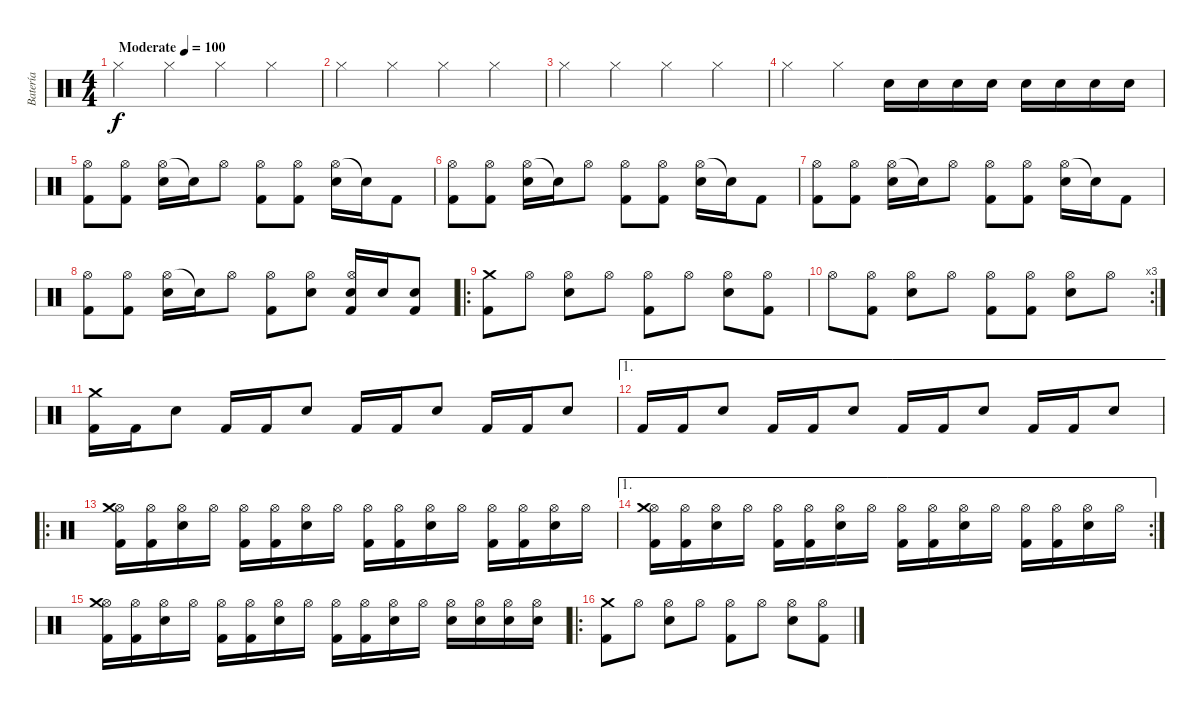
\track ("Batería" "Batería") {instrument percussion}
\staff {score}
\articulation defaults
\ts (4 4)
\tempo (100 "Moderate")
\clef neutral
\ks c "Hi-Hat (closed)".4{dy f} "Hi-Hat (closed)".4 "Hi-Hat (closed)".4 "Hi-Hat (closed)".4
|
"Hi-Hat (closed)".4 "Hi-Hat (closed)".4 "Hi-Hat (closed)".4 "Hi-Hat (closed)".4 |
"Hi-Hat (closed)".4 "Hi-Hat (closed)".4 "Hi-Hat (closed)".4 "Hi-Hat (closed)".4 |
"Hi-Hat (closed)".4 "Hi-Hat (closed)".4 "Snare (hit) 2".16 "Snare (hit) 2".16 "Snare (hit) 2".16 "Snare (hit) 2".16 "Snare (hit) 2".16 "Snare (hit) 2".16 "Snare (hit) 2".16 "Snare (hit) 2".16 |
("Hi-Hat (open)" "Kick (hit) 2").8 ("Hi-Hat (open)" "Kick (hit) 2").8 ("Hi-Hat (open)" "Snare (hit) 2").16 "Snare (hit)"{t}.16 "Hi-Hat (open)".8 ("Hi-Hat (open)" "Kick (hit) 2").8 ("Hi-Hat (open)" "Kick (hit) 2").8 ("Hi-Hat (open)" "Snare (hit) 2").16 "Snare (hit)"{t}.16 "Kick (hit) 2".8 |
("Hi-Hat (open)" "Kick (hit) 2").8 ("Hi-Hat (open)" "Kick (hit) 2").8 ("Hi-Hat (open)" "Snare (hit) 2").16 "Snare (hit)"{t}.16 "Hi-Hat (open)".8 ("Hi-Hat (open)" "Kick (hit) 2").8 ("Hi-Hat (open)" "Kick (hit) 2").8 ("Hi-Hat (open)" "Snare (hit) 2").16 "Snare (hit)"{t}.16 "Kick (hit) 2".8 |
("Hi-Hat (open)" "Kick (hit) 2").8 ("Hi-Hat (open)" "Kick (hit) 2").8 ("Hi-Hat (open)" "Snare (hit) 2").16 "Snare (hit)"{t}.16 "Hi-Hat (open)".8 ("Hi-Hat (open)" "Kick (hit) 2").8 ("Hi-Hat (open)" "Kick (hit) 2").8 ("Hi-Hat (open)" "Snare (hit) 2").16 "Snare (hit)"{t}.16 "Kick (hit) 2".8 |
("Hi-Hat (open)" "Kick (hit) 2").8 ("Hi-Hat (open)" "Kick (hit) 2").8 ("Hi-Hat (open)" "Snare (hit) 2").16 "Snare (hit)"{t}.16 "Hi-Hat (open)".8 ("Hi-Hat (open)" "Kick (hit) 2").8 ("Hi-Hat (open)" "Snare (hit) 2").8 ("Hi-Hat (open)" "Snare (hit) 2" "Kick (hit) 2").16 "Snare (hit) 2".16 ("Snare (hit) 2" "Kick (hit) 2").8 |
\ro
("Kick (hit) 2" "Crash medium (hit)").8 "Hi-Hat (open)".8 ("Snare (hit) 2" "Hi-Hat (open)").8 "Hi-Hat (open)".8 ("Kick (hit) 2" "Hi-Hat (open)").8 "Hi-Hat (open)".8 ("Snare (hit) 2" "Hi-Hat (open)").8 ("Kick (hit) 2" "Hi-Hat (open)").8 |
\rc 3 "Hi-Hat (open)".8
("Kick (hit) 2" "Hi-Hat (open)").8 ("Snare (hit) 2" "Hi-Hat (open)").8 "Hi-Hat (open)".8 ("Kick (hit) 2" "Hi-Hat (open)").8 ("Kick (hit) 2" "Hi-Hat (open)").8 ("Snare (hit) 2" "Hi-Hat (open)").8 "Hi-Hat (open)".8 |
("Kick (hit) 2" "Crash medium (hit)").16 "Kick (hit) 2".16 "Snare (hit) 2".8 "Kick (hit) 2".16 "Kick (hit) 2".16 "Snare (hit) 2".8 "Kick (hit) 2".16 "Kick (hit) 2".16 "Snare (hit) 2".8 "Kick (hit) 2".16 "Kick (hit) 2".16 "Snare (hit) 2".8 |
\ae 1 "Kick (hit) 2".16 "Kick (hit) 2".16 "Snare (hit) 2".8 "Kick (hit) 2".16 "Kick (hit) 2".16 "Snare (hit) 2".8 "Kick (hit) 2".16 "Kick (hit) 2".16 "Snare (hit) 2".8 "Kick (hit) 2".16 "Kick (hit) 2".16 "Snare (hit) 2".8
|
\ro
("Kick (hit) 2" "Hi-Hat (open)" "Crash medium (hit)").16 ("Kick (hit) 2" "Hi-Hat (open)").16 ("Snare (hit) 2" "Hi-Hat (open)").16 "Hi-Hat (open)".16 ("Kick (hit) 2" "Hi-Hat (open)").16 ("Kick (hit) 2" "Hi-Hat (open)").16 ("Snare (hit) 2" "Hi-Hat (open)").16 "Hi-Hat (open)".16 ("Kick (hit) 2" "Hi-Hat (open)").16 ("Kick (hit) 2" "Hi-Hat (open)").16 ("Snare (hit) 2" "Hi-Hat (open)").16 "Hi-Hat (open)".16 ("Kick (hit) 2" "Hi-Hat (open)").16 ("Kick (hit) 2" "Hi-Hat (open)").16 ("Snare (hit) 2" "Hi-Hat (open)").16 "Hi-Hat (open)".16 |
\ae 1
\rc 2
("Kick (hit) 2" "Hi-Hat (open)" "Crash medium (hit)").16 ("Kick (hit) 2" "Hi-Hat (open)").16 ("Snare (hit) 2" "Hi-Hat (open)").16 "Hi-Hat (open)".16 ("Kick (hit) 2" "Hi-Hat (open)").16 ("Kick (hit) 2" "Hi-Hat (open)").16 ("Snare (hit) 2" "Hi-Hat (open)").16 "Hi-Hat (open)".16 ("Kick (hit) 2" "Hi-Hat (open)").16 ("Kick (hit) 2" "Hi-Hat (open)").16 ("Snare (hit) 2" "Hi-Hat (open)").16 "Hi-Hat (open)".16 ("Kick (hit) 2" "Hi-Hat (open)").16 ("Kick (hit) 2" "Hi-Hat (open)").16 ("Snare (hit) 2" "Hi-Hat (open)").16 "Hi-Hat (open)".16 |
("Kick (hit) 2" "Hi-Hat (open)" "Crash medium (hit)").16 ("Kick (hit) 2" "Hi-Hat (open)").16 ("Snare (hit) 2" "Hi-Hat (open)").16 "Hi-Hat (open)".16 ("Kick (hit) 2" "Hi-Hat (open)").16 ("Kick (hit) 2" "Hi-Hat (open)").16 ("Snare (hit) 2" "Hi-Hat (open)").16 "Hi-Hat (open)".16 ("Kick (hit) 2" "Hi-Hat (open)").16 ("Kick (hit) 2" "Hi-Hat (open)").16 ("Snare (hit) 2" "Hi-Hat (open)").16 "Hi-Hat (open)".16 ("Snare (hit) 2" "Hi-Hat (open)").16 ("Snare (hit) 2" "Hi-Hat (open)").16 ("Snare (hit) 2" "Hi-Hat (open)").16 ("Snare (hit) 2" "Hi-Hat (open)").16 |
\ro
("Kick (hit) 2" "Crash medium (hit)").8 "Hi-Hat (open)".8 ("Snare (hit) 2" "Hi-Hat (open)").8 "Hi-Hat (open)".8 ("Kick (hit) 2" "Hi-Hat (open)").8 "Hi-Hat (open)".8 ("Snare (hit) 2" "Hi-Hat (open)").8 ("Kick (hit) 2" "Hi-Hat (open)").8
